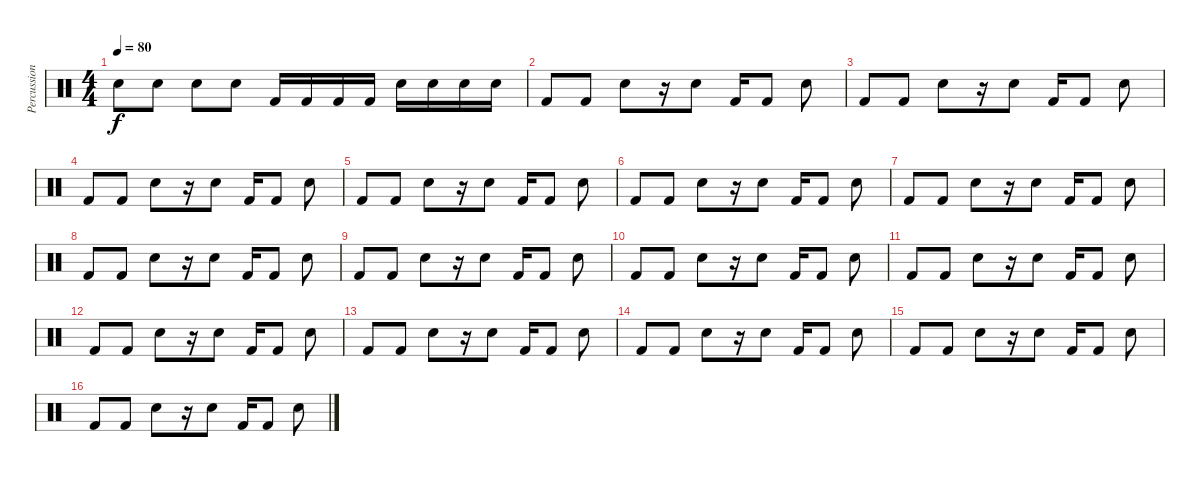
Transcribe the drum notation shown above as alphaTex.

\track ("Percussion" "Percussion") {instrument percussion}
\staff {score}
\articulation defaults
\ts (4 4)
\tempo 80
\clef neutral
\ks c "Electric Snare (hit)".8{dy f} "Electric Snare (hit)".8 "Electric Snare (hit)".8 "Electric Snare (hit)".8 "Kick (hit) 2".16 "Kick (hit) 2".16 "Kick (hit) 2".16 "Kick (hit) 2".16 "Electric Snare (hit)".16 "Electric Snare (hit)".16 "Electric Snare (hit)".16 "Electric Snare (hit)".16
|
"Kick (hit) 2".8 "Kick (hit) 2".8 "Electric Snare (hit)".8 r.16 "Electric Snare (hit)".8 "Kick (hit) 2".16 "Kick (hit) 2".8 "Electric Snare (hit)".8 |
"Kick (hit) 2".8 "Kick (hit) 2".8 "Electric Snare (hit)".8 r.16 "Electric Snare (hit)".8 "Kick (hit) 2".16 "Kick (hit) 2".8 "Electric Snare (hit)".8 |
"Kick (hit) 2".8 "Kick (hit) 2".8 "Electric Snare (hit)".8 r.16 "Electric Snare (hit)".8 "Kick (hit) 2".16 "Kick (hit) 2".8 "Electric Snare (hit)".8 |
"Kick (hit) 2".8 "Kick (hit) 2".8 "Electric Snare (hit)".8 r.16 "Electric Snare (hit)".8 "Kick (hit) 2".16 "Kick (hit) 2".8 "Electric Snare (hit)".8 |
"Kick (hit) 2".8 "Kick (hit) 2".8 "Electric Snare (hit)".8 r.16 "Electric Snare (hit)".8 "Kick (hit) 2".16 "Kick (hit) 2".8 "Electric Snare (hit)".8 |
"Kick (hit) 2".8 "Kick (hit) 2".8 "Electric Snare (hit)".8 r.16 "Electric Snare (hit)".8 "Kick (hit) 2".16 "Kick (hit) 2".8 "Electric Snare (hit)".8 |
"Kick (hit) 2".8 "Kick (hit) 2".8 "Electric Snare (hit)".8 r.16 "Electric Snare (hit)".8 "Kick (hit) 2".16 "Kick (hit) 2".8 "Electric Snare (hit)".8 |
"Kick (hit) 2".8 "Kick (hit) 2".8 "Electric Snare (hit)".8 r.16 "Electric Snare (hit)".8 "Kick (hit) 2".16 "Kick (hit) 2".8 "Electric Snare (hit)".8 |
"Kick (hit) 2".8 "Kick (hit) 2".8 "Electric Snare (hit)".8 r.16 "Electric Snare (hit)".8 "Kick (hit) 2".16 "Kick (hit) 2".8 "Electric Snare (hit)".8 |
"Kick (hit) 2".8 "Kick (hit) 2".8 "Electric Snare (hit)".8 r.16 "Electric Snare (hit)".8 "Kick (hit) 2".16 "Kick (hit) 2".8 "Electric Snare (hit)".8 |
"Kick (hit) 2".8 "Kick (hit) 2".8 "Electric Snare (hit)".8 r.16 "Electric Snare (hit)".8 "Kick (hit) 2".16 "Kick (hit) 2".8 "Electric Snare (hit)".8 |
"Kick (hit) 2".8 "Kick (hit) 2".8 "Electric Snare (hit)".8 r.16 "Electric Snare (hit)".8 "Kick (hit) 2".16 "Kick (hit) 2".8 "Electric Snare (hit)".8 |
"Kick (hit) 2".8 "Kick (hit) 2".8 "Electric Snare (hit)".8 r.16 "Electric Snare (hit)".8 "Kick (hit) 2".16 "Kick (hit) 2".8 "Electric Snare (hit)".8 |
"Kick (hit) 2".8 "Kick (hit) 2".8 "Electric Snare (hit)".8 r.16 "Electric Snare (hit)".8 "Kick (hit) 2".16 "Kick (hit) 2".8 "Electric Snare (hit)".8 |
"Kick (hit) 2".8 "Kick (hit) 2".8 "Electric Snare (hit)".8 r.16 "Electric Snare (hit)".8 "Kick (hit) 2".16 "Kick (hit) 2".8 "Electric Snare (hit)".8
